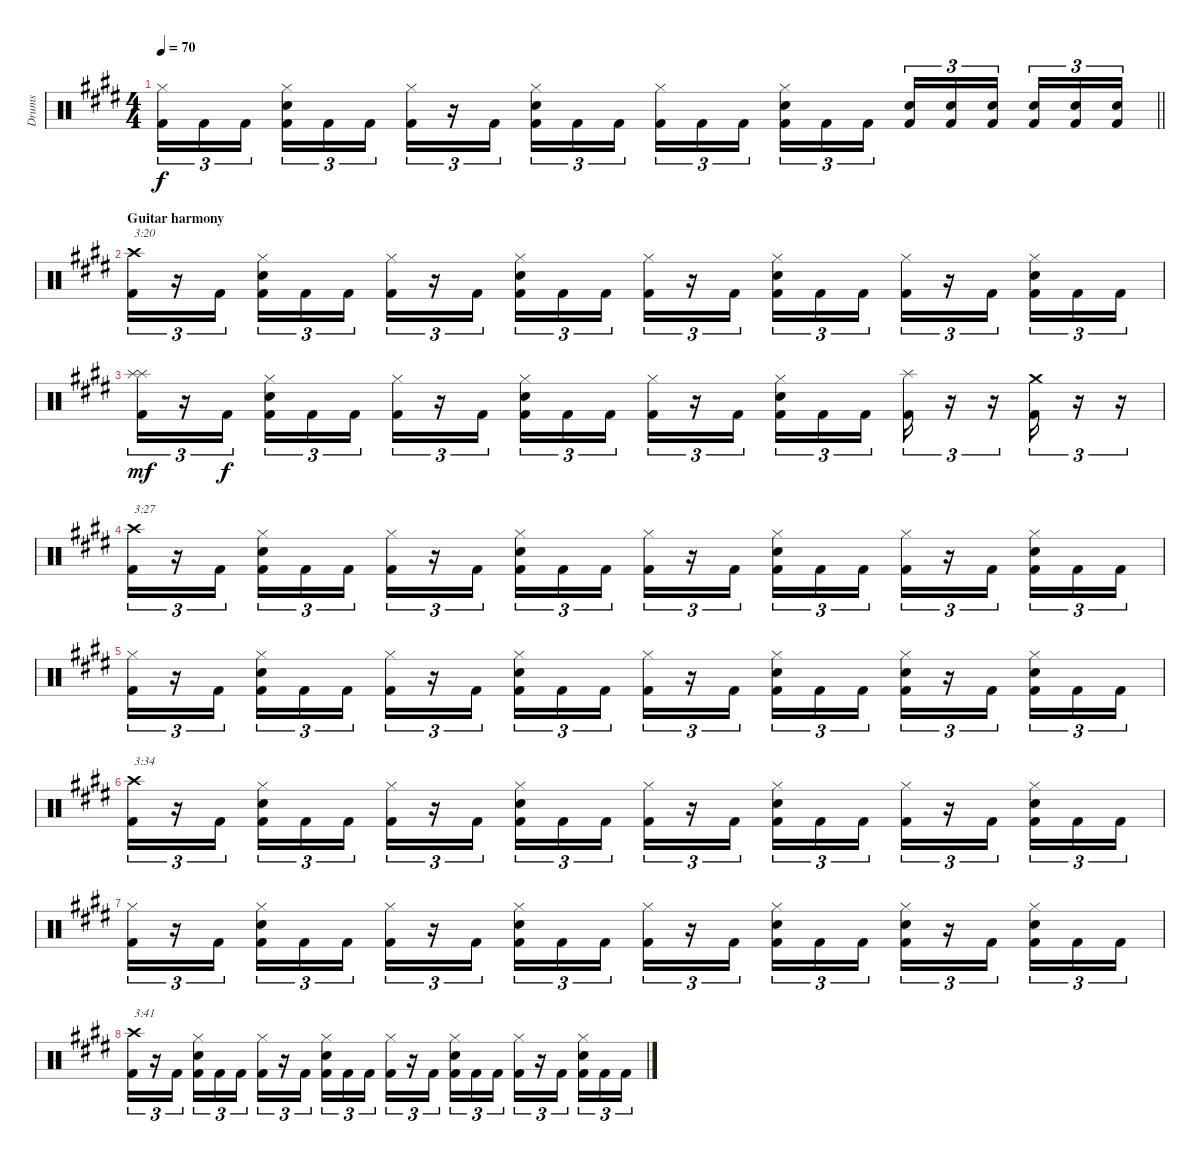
\track ("Drums" "Drums") {instrument percussion}
\staff {score}
\articulation defaults
\ts (4 4)
\tempo 70
\clef neutral
\barLineRight lightlight
\ks c#minor
("Hi-Hat (closed)" "Kick (hit) 2").16{tu (3 2) dy f} "Kick (hit) 2".16{tu (3 2)} "Kick (hit) 2".16{tu (3 2) beam splitsecondary} ("Hi-Hat (closed)" "Snare (hit) 2" "Kick (hit) 2").16{tu (3 2)} "Kick (hit) 2".16{tu (3 2)} "Kick (hit) 2".16{tu (3 2)} ("Hi-Hat (closed)" "Kick (hit) 2").16{tu (3 2)} r.16{tu (3 2)} "Kick (hit) 2".16{tu (3 2) beam splitsecondary} ("Hi-Hat (closed)" "Snare (hit) 2" "Kick (hit) 2").16{tu (3 2)} "Kick (hit) 2".16{tu (3 2)} "Kick (hit) 2".16{tu (3 2)} ("Hi-Hat (closed)" "Kick (hit) 2").16{tu (3 2)} "Kick (hit) 2".16{tu (3 2)} "Kick (hit) 2".16{tu (3 2) beam splitsecondary} ("Hi-Hat (closed)" "Snare (hit) 2" "Kick (hit) 2").16{tu (3 2)} "Kick (hit) 2".16{tu (3 2)} "Kick (hit) 2".16{tu (3 2)} ("Snare (hit) 2" "Kick (hit) 2").16{tu (3 2)} ("Snare (hit) 2" "Kick (hit) 2").16{tu (3 2)} ("Snare (hit) 2" "Kick (hit) 2").16{tu (3 2) beam splitsecondary} ("Snare (hit) 2" "Kick (hit) 2").16{tu (3 2)} ("Snare (hit) 2" "Kick (hit) 2").16{tu (3 2)} ("Snare (hit) 2" "Kick (hit) 2").16{tu (3 2)} |
\section ("" "Guitar harmony")
("Crash high (hit)" "Kick (hit) 2").16{tu (3 2) txt "3:20"} r.16{tu (3 2)} "Kick (hit) 2".16{tu (3 2) beam splitsecondary} ("Hi-Hat (closed)" "Snare (hit) 2" "Kick (hit) 2").16{tu (3 2)} "Kick (hit) 2".16{tu (3 2)} "Kick (hit) 2".16{tu (3 2)} ("Hi-Hat (closed)" "Kick (hit) 2").16{tu (3 2)} r.16{tu (3 2)} "Kick (hit) 2".16{tu (3 2) beam splitsecondary} ("Hi-Hat (closed)" "Snare (hit) 2" "Kick (hit) 2").16{tu (3 2)} "Kick (hit) 2".16{tu (3 2)} "Kick (hit) 2".16{tu (3 2)} ("Hi-Hat (closed)" "Kick (hit) 2").16{tu (3 2)} r.16{tu (3 2)} "Kick (hit) 2".16{tu (3 2) beam splitsecondary} ("Hi-Hat (closed)" "Snare (hit) 2" "Kick (hit) 2").16{tu (3 2)} "Kick (hit) 2".16{tu (3 2)} "Kick (hit) 2".16{tu (3 2)} ("Hi-Hat (closed)" "Kick (hit) 2").16{tu (3 2)} r.16{tu (3 2)} "Kick (hit) 2".16{tu (3 2) beam splitsecondary} ("Hi-Hat (closed)" "Snare (hit) 2" "Kick (hit) 2").16{tu (3 2)} "Kick (hit) 2".16{tu (3 2)} "Kick (hit) 2".16{tu (3 2)} |
("Splash (hit)" "Splash (hit)" "Kick (hit) 2").16{tu (3 2) dy mf} r.16{tu (3 2)} "Kick (hit) 2".16{tu (3 2) dy f beam splitsecondary} ("Hi-Hat (closed)" "Snare (hit) 2" "Kick (hit) 2").16{tu (3 2)} "Kick (hit) 2".16{tu (3 2)} "Kick (hit) 2".16{tu (3 2)} ("Hi-Hat (closed)" "Kick (hit) 2").16{tu (3 2)} r.16{tu (3 2)} "Kick (hit) 2".16{tu (3 2) beam splitsecondary} ("Hi-Hat (closed)" "Snare (hit) 2" "Kick (hit) 2").16{tu (3 2)} "Kick (hit) 2".16{tu (3 2)} "Kick (hit) 2".16{tu (3 2)} ("Hi-Hat (closed)" "Kick (hit) 2").16{tu (3 2)} r.16{tu (3 2)} "Kick (hit) 2".16{tu (3 2) beam splitsecondary} ("Hi-Hat (closed)" "Snare (hit) 2" "Kick (hit) 2").16{tu (3 2)} "Kick (hit) 2".16{tu (3 2)} "Kick (hit) 2".16{tu (3 2)} ("Splash (hit)" "Kick (hit) 2").16{tu (3 2)} r.16{tu (3 2)} r.16{tu (3 2)} ("Crash medium (hit)" "Kick (hit) 2").16{tu (3 2)} r.16{tu (3 2)} r.16{tu (3 2)} |
("Crash high (hit)" "Kick (hit) 2").16{tu (3 2) txt "3:27"} r.16{tu (3 2)} "Kick (hit) 2".16{tu (3 2) beam splitsecondary} ("Hi-Hat (closed)" "Snare (hit) 2" "Kick (hit) 2").16{tu (3 2)} "Kick (hit) 2".16{tu (3 2)} "Kick (hit) 2".16{tu (3 2)} ("Hi-Hat (closed)" "Kick (hit) 2").16{tu (3 2)} r.16{tu (3 2)} "Kick (hit) 2".16{tu (3 2) beam splitsecondary} ("Hi-Hat (closed)" "Snare (hit) 2" "Kick (hit) 2").16{tu (3 2)} "Kick (hit) 2".16{tu (3 2)} "Kick (hit) 2".16{tu (3 2)} ("Hi-Hat (closed)" "Kick (hit) 2").16{tu (3 2)} r.16{tu (3 2)} "Kick (hit) 2".16{tu (3 2) beam splitsecondary} ("Hi-Hat (closed)" "Snare (hit) 2" "Kick (hit) 2").16{tu (3 2)} "Kick (hit) 2".16{tu (3 2)} "Kick (hit) 2".16{tu (3 2)} ("Hi-Hat (closed)" "Kick (hit) 2").16{tu (3 2)} r.16{tu (3 2)} "Kick (hit) 2".16{tu (3 2) beam splitsecondary} ("Hi-Hat (closed)" "Snare (hit) 2" "Kick (hit) 2").16{tu (3 2)} "Kick (hit) 2".16{tu (3 2)} "Kick (hit) 2".16{tu (3 2)} |
("Hi-Hat (closed)" "Kick (hit) 2").16{tu (3 2)} r.16{tu (3 2)} "Kick (hit) 2".16{tu (3 2) beam splitsecondary} ("Hi-Hat (closed)" "Snare (hit) 2" "Kick (hit) 2").16{tu (3 2)} "Kick (hit) 2".16{tu (3 2)} "Kick (hit) 2".16{tu (3 2)} ("Hi-Hat (closed)" "Kick (hit) 2").16{tu (3 2)} r.16{tu (3 2)} "Kick (hit) 2".16{tu (3 2) beam splitsecondary} ("Hi-Hat (closed)" "Snare (hit) 2" "Kick (hit) 2").16{tu (3 2)} "Kick (hit) 2".16{tu (3 2)} "Kick (hit) 2".16{tu (3 2)} ("Hi-Hat (closed)" "Kick (hit) 2").16{tu (3 2)} r.16{tu (3 2)} "Kick (hit) 2".16{tu (3 2) beam splitsecondary} ("Hi-Hat (closed)" "Snare (hit) 2" "Kick (hit) 2").16{tu (3 2)} "Kick (hit) 2".16{tu (3 2)} "Kick (hit) 2".16{tu (3 2)} ("Hi-Hat (closed)" "Snare (hit) 2" "Kick (hit) 2").16{tu (3 2)} r.16{tu (3 2)} "Kick (hit) 2".16{tu (3 2) beam splitsecondary} ("Hi-Hat (closed)" "Snare (hit) 2" "Kick (hit) 2").16{tu (3 2)} "Kick (hit) 2".16{tu (3 2)} "Kick (hit) 2".16{tu (3 2)} |
("Crash high (hit)" "Kick (hit) 2").16{tu (3 2) txt "3:34"} r.16{tu (3 2)} "Kick (hit) 2".16{tu (3 2) beam splitsecondary} ("Hi-Hat (closed)" "Snare (hit) 2" "Kick (hit) 2").16{tu (3 2)} "Kick (hit) 2".16{tu (3 2)} "Kick (hit) 2".16{tu (3 2)} ("Hi-Hat (closed)" "Kick (hit) 2").16{tu (3 2)} r.16{tu (3 2)} "Kick (hit) 2".16{tu (3 2) beam splitsecondary} ("Hi-Hat (closed)" "Snare (hit) 2" "Kick (hit) 2").16{tu (3 2)} "Kick (hit) 2".16{tu (3 2)} "Kick (hit) 2".16{tu (3 2)} ("Hi-Hat (closed)" "Kick (hit) 2").16{tu (3 2)} r.16{tu (3 2)} "Kick (hit) 2".16{tu (3 2) beam splitsecondary} ("Hi-Hat (closed)" "Snare (hit) 2" "Kick (hit) 2").16{tu (3 2)} "Kick (hit) 2".16{tu (3 2)} "Kick (hit) 2".16{tu (3 2)} ("Hi-Hat (closed)" "Kick (hit) 2").16{tu (3 2)} r.16{tu (3 2)} "Kick (hit) 2".16{tu (3 2) beam splitsecondary} ("Hi-Hat (closed)" "Snare (hit) 2" "Kick (hit) 2").16{tu (3 2)} "Kick (hit) 2".16{tu (3 2)} "Kick (hit) 2".16{tu (3 2)} |
("Hi-Hat (closed)" "Kick (hit) 2").16{tu (3 2)} r.16{tu (3 2)} "Kick (hit) 2".16{tu (3 2) beam splitsecondary} ("Hi-Hat (closed)" "Snare (hit) 2" "Kick (hit) 2").16{tu (3 2)} "Kick (hit) 2".16{tu (3 2)} "Kick (hit) 2".16{tu (3 2)} ("Hi-Hat (closed)" "Kick (hit) 2").16{tu (3 2)} r.16{tu (3 2)} "Kick (hit) 2".16{tu (3 2) beam splitsecondary} ("Hi-Hat (closed)" "Snare (hit) 2" "Kick (hit) 2").16{tu (3 2)} "Kick (hit) 2".16{tu (3 2)} "Kick (hit) 2".16{tu (3 2)} ("Hi-Hat (closed)" "Kick (hit) 2").16{tu (3 2)} r.16{tu (3 2)} "Kick (hit) 2".16{tu (3 2) beam splitsecondary} ("Hi-Hat (closed)" "Snare (hit) 2" "Kick (hit) 2").16{tu (3 2)} "Kick (hit) 2".16{tu (3 2)} "Kick (hit) 2".16{tu (3 2)} ("Hi-Hat (closed)" "Snare (hit) 2" "Kick (hit) 2").16{tu (3 2)} r.16{tu (3 2)} "Kick (hit) 2".16{tu (3 2) beam splitsecondary} ("Hi-Hat (closed)" "Snare (hit) 2" "Kick (hit) 2").16{tu (3 2)} "Kick (hit) 2".16{tu (3 2)} "Kick (hit) 2".16{tu (3 2)} |
("Crash high (hit)" "Kick (hit) 2").16{tu (3 2) txt "3:41"} r.16{tu (3 2)} "Kick (hit) 2".16{tu (3 2) beam splitsecondary} ("Hi-Hat (closed)" "Snare (hit) 2" "Kick (hit) 2").16{tu (3 2)} "Kick (hit) 2".16{tu (3 2)} "Kick (hit) 2".16{tu (3 2)} ("Hi-Hat (closed)" "Kick (hit) 2").16{tu (3 2)} r.16{tu (3 2)} "Kick (hit) 2".16{tu (3 2) beam splitsecondary} ("Hi-Hat (closed)" "Snare (hit) 2" "Kick (hit) 2").16{tu (3 2)} "Kick (hit) 2".16{tu (3 2)} "Kick (hit) 2".16{tu (3 2)} ("Hi-Hat (closed)" "Kick (hit) 2").16{tu (3 2)} r.16{tu (3 2)} "Kick (hit) 2".16{tu (3 2) beam splitsecondary} ("Hi-Hat (closed)" "Snare (hit) 2" "Kick (hit) 2").16{tu (3 2)} "Kick (hit) 2".16{tu (3 2)} "Kick (hit) 2".16{tu (3 2)} ("Hi-Hat (closed)" "Kick (hit) 2").16{tu (3 2)} r.16{tu (3 2)} "Kick (hit) 2".16{tu (3 2) beam splitsecondary} ("Hi-Hat (closed)" "Snare (hit) 2" "Kick (hit) 2").16{tu (3 2)} "Kick (hit) 2".16{tu (3 2)} "Kick (hit) 2".16{tu (3 2)}
